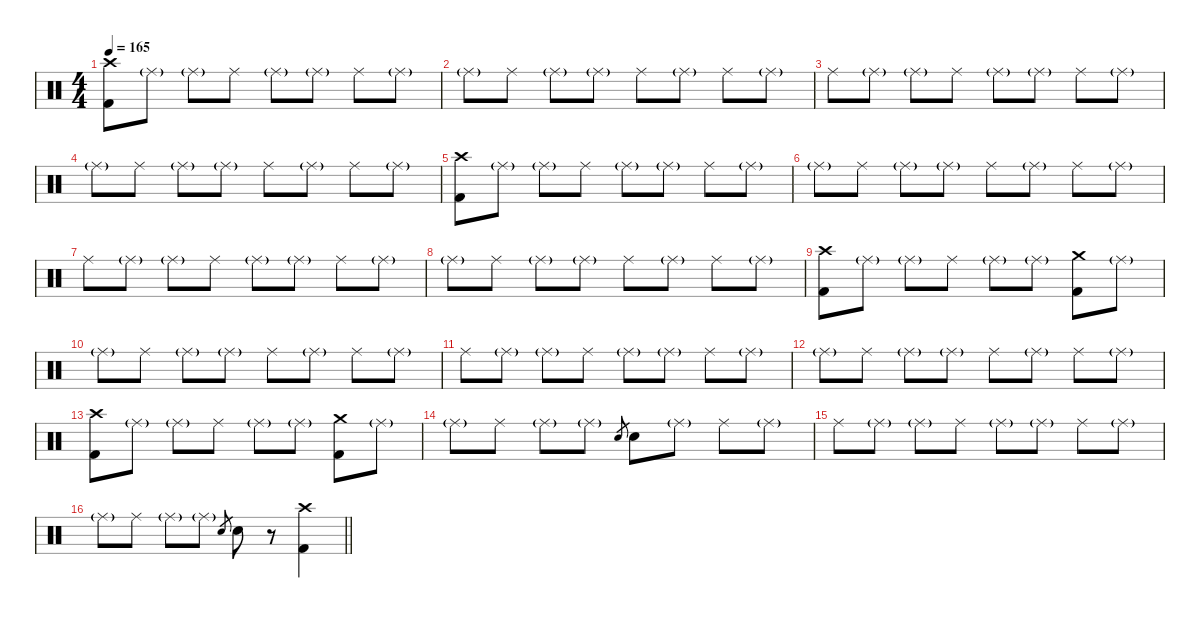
\defaultSystemsLayout 4
\hideDynamics
\bracketExtendMode nobrackets
\singleTrackTrackNamePolicy hidden
\multiTrackTrackNamePolicy hidden
\firstSystemTrackNameMode fullname
\firstSystemTrackNameOrientation horizontal
\otherSystemsTrackNameOrientation horizontal
\track ("Marty Chapman (Drums)" "drm.") {instrument percussion}
\staff {score}
\articulation defaults
\ts (4 4)
\tempo 165
\clef neutral
\ks c
("Crash high (hit)" "Kick (hit) 2").8{dy f beam Down} "Ride (middle)"{g}.8{beam Down} "Ride (middle)"{g}.8{beam Down} "Ride (middle)".8{beam Down} "Ride (middle)"{g}.8{beam Down} "Ride (middle)"{g}.8{beam Down} "Ride (middle)".8{beam Down} "Ride (middle)"{g}.8{beam Down} |
"Ride (middle)"{g}.8{beam Down} "Ride (middle)".8{beam Down} "Ride (middle)"{g}.8{beam Down} "Ride (middle)"{g}.8{beam Down} "Ride (middle)".8{beam Down} "Ride (middle)"{g}.8{beam Down} "Ride (middle)".8{beam Down} "Ride (middle)"{g}.8{beam Down} |
"Ride (middle)".8{beam Down} "Ride (middle)"{g}.8{beam Down} "Ride (middle)"{g}.8{beam Down} "Ride (middle)".8{beam Down} "Ride (middle)"{g}.8{beam Down} "Ride (middle)"{g}.8{beam Down} "Ride (middle)".8{beam Down} "Ride (middle)"{g}.8{beam Down} |
"Ride (middle)"{g}.8{beam Down} "Ride (middle)".8{beam Down} "Ride (middle)"{g}.8{beam Down} "Ride (middle)"{g}.8{beam Down} "Ride (middle)".8{beam Down} "Ride (middle)"{g}.8{beam Down} "Ride (middle)".8{beam Down} "Ride (middle)"{g}.8{beam Down} |
("Crash high (hit)" "Kick (hit) 2").8{beam Down} "Ride (middle)"{g}.8{beam Down} "Ride (middle)"{g}.8{beam Down} "Ride (middle)".8{beam Down} "Ride (middle)"{g}.8{beam Down} "Ride (middle)"{g}.8{beam Down} "Ride (middle)".8{beam Down} "Ride (middle)"{g}.8{beam Down} |
"Ride (middle)"{g}.8{beam Down} "Ride (middle)".8{beam Down} "Ride (middle)"{g}.8{beam Down} "Ride (middle)"{g}.8{beam Down} "Ride (middle)".8{beam Down} "Ride (middle)"{g}.8{beam Down} "Ride (middle)".8{beam Down} "Ride (middle)"{g}.8{beam Down} |
"Ride (middle)".8{beam Down} "Ride (middle)"{g}.8{beam Down} "Ride (middle)"{g}.8{beam Down} "Ride (middle)".8{beam Down} "Ride (middle)"{g}.8{beam Down} "Ride (middle)"{g}.8{beam Down} "Ride (middle)".8{beam Down} "Ride (middle)"{g}.8{beam Down} |
"Ride (middle)"{g}.8{beam Down} "Ride (middle)".8{beam Down} "Ride (middle)"{g}.8{beam Down} "Ride (middle)"{g}.8{beam Down} "Ride (middle)".8{beam Down} "Ride (middle)"{g}.8{beam Down} "Ride (middle)".8{beam Down} "Ride (middle)"{g}.8{beam Down} |
("Crash high (hit)" "Kick (hit) 2").8{beam Down} "Ride (middle)"{g}.8{beam Down} "Ride (middle)"{g}.8{beam Down} "Ride (middle)".8{beam Down} "Ride (middle)"{g}.8{beam Down} "Ride (middle)"{g}.8{beam Down} ("Crash medium (hit)" "Kick (hit) 2").8{beam Down} "Ride (middle)"{g}.8{beam Down} |
"Ride (middle)"{g}.8{beam Down} "Ride (middle)".8{beam Down} "Ride (middle)"{g}.8{beam Down} "Ride (middle)"{g}.8{beam Down} "Ride (middle)".8{beam Down} "Ride (middle)"{g}.8{beam Down} "Ride (middle)".8{beam Down} "Ride (middle)"{g}.8{beam Down} |
"Ride (middle)".8{beam Down} "Ride (middle)"{g}.8{beam Down} "Ride (middle)"{g}.8{beam Down} "Ride (middle)".8{beam Down} "Ride (middle)"{g}.8{beam Down} "Ride (middle)"{g}.8{beam Down} "Ride (middle)".8{beam Down} "Ride (middle)"{g}.8{beam Down} |
"Ride (middle)"{g}.8{beam Down} "Ride (middle)".8{beam Down} "Ride (middle)"{g}.8{beam Down} "Ride (middle)"{g}.8{beam Down} "Ride (middle)".8{beam Down} "Ride (middle)"{g}.8{beam Down} "Ride (middle)".8{beam Down} "Ride (middle)"{g}.8{beam Down} |
("Crash high (hit)" "Kick (hit) 2").8{beam Down} "Ride (middle)"{g}.8{beam Down} "Ride (middle)"{g}.8{beam Down} "Ride (middle)".8{beam Down} "Ride (middle)"{g}.8{beam Down} "Ride (middle)"{g}.8{beam Down} ("Crash medium (hit)" "Kick (hit) 2").8{beam Down} "Ride (middle)"{g}.8{beam Down} |
"Ride (middle)"{g}.8{beam Down} "Ride (middle)".8{beam Down} "Ride (middle)"{g}.8{beam Down} "Ride (middle)"{g}.8{beam Down} "Electric Snare (hit)".8{gr dy mf beam Up} "Snare (hit) 2".8{dy f beam Down} "Ride (middle)"{g}.8{beam Down} "Ride (middle)".8{beam Down} "Ride (middle)"{g}.8{beam Down} |
"Ride (middle)".8{beam Down} "Ride (middle)"{g}.8{beam Down} "Ride (middle)"{g}.8{beam Down} "Ride (middle)".8{beam Down} "Ride (middle)"{g}.8{beam Down} "Ride (middle)"{g}.8{beam Down} "Ride (middle)".8{beam Down} "Ride (middle)"{g}.8{beam Down} |
\barLineRight lightlight "Ride (middle)"{g}.8{beam Down} "Ride (middle)".8{beam Down} "Ride (middle)"{g}.8{beam Down} "Ride (middle)"{g}.8{beam Down} "Electric Snare (hit)".8{gr dy mf beam Up} "Snare (hit) 2".8{dy f beam Down}
r.8{beam Down} ("Crash high (hit)" "Kick (hit) 2").4{beam Down}
